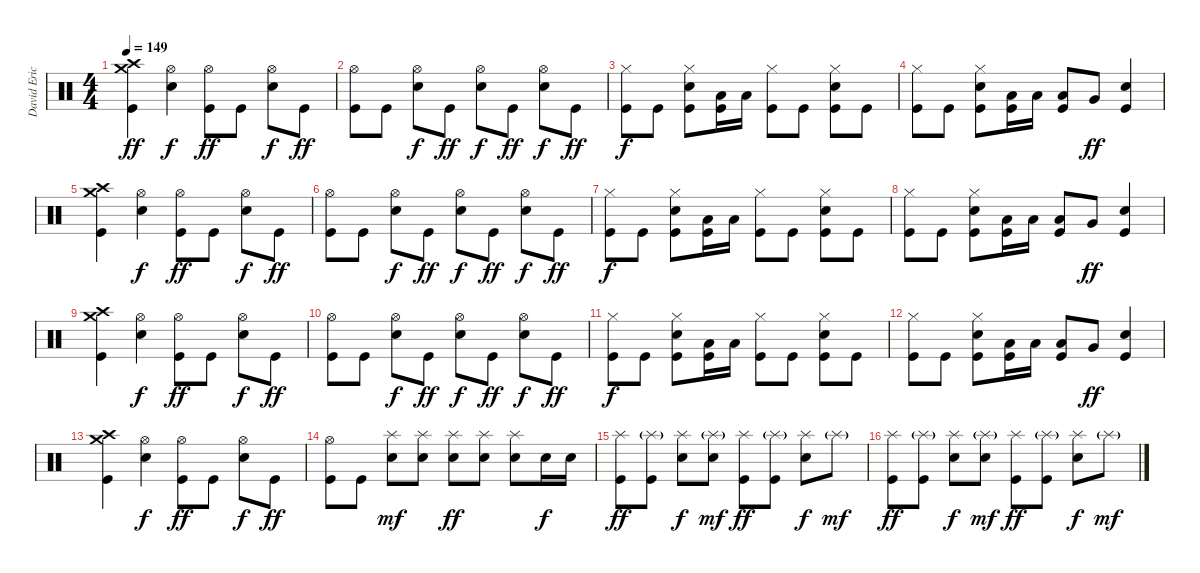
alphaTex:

\track ("David Eric Grohl" "David Eric") {instrument percussion}
\staff {score}
\articulation defaults
\ts (4 4)
\tempo 149
\clef neutral
\ks c
("Crash medium (hit)" "Crash high (hit)" "Kick (hit)").4{dy ff} ("Hi-Hat (open)" "Snare (hit) 2").4{dy f} ("Hi-Hat (open)" "Kick (hit)").8{dy ff} "Kick (hit)".8 ("Hi-Hat (open)" "Snare (hit) 2").8{dy f} "Kick (hit)".8{dy ff} |
("Hi-Hat (open)" "Kick (hit)").8 "Kick (hit)".8 ("Hi-Hat (open)" "Snare (hit) 2").8{dy f} "Kick (hit)".8{dy ff} ("Hi-Hat (open)" "Snare (hit) 2").8{dy f} "Kick (hit)".8{dy ff} ("Hi-Hat (open)" "Snare (hit) 2").8{dy f} "Kick (hit)".8{dy ff} |
("Hi-Hat (closed)" "Kick (hit)").8{dy f} "Kick (hit)".8 ("Snare (hit) 2" "Hi-Hat (closed)" "Kick (hit)").8 ("Low Tom (hit)" "Kick (hit)").16 "Low Tom (hit)".16 ("Hi-Hat (closed)" "Kick (hit)").8 "Kick (hit)".8 ("Snare (hit) 2" "Hi-Hat (closed)" "Kick (hit)").8 "Kick (hit)".8 |
("Hi-Hat (closed)" "Kick (hit)").8 "Kick (hit)".8 ("Snare (hit) 2" "Hi-Hat (closed)" "Kick (hit)").8 ("Low Tom (hit)" "Kick (hit)").16 "Low Tom (hit)".16 ("Low Tom (hit)" "Kick (hit)").8 "Very Low Tom (hit)".8{dy ff} ("Snare (hit) 2" "Kick (hit)").4 |
("Crash medium (hit)" "Crash high (hit)" "Kick (hit)").4 ("Hi-Hat (open)" "Snare (hit) 2").4{dy f} ("Hi-Hat (open)" "Kick (hit)").8{dy ff} "Kick (hit)".8 ("Hi-Hat (open)" "Snare (hit) 2").8{dy f} "Kick (hit)".8{dy ff} |
("Hi-Hat (open)" "Kick (hit)").8 "Kick (hit)".8 ("Hi-Hat (open)" "Snare (hit) 2").8{dy f} "Kick (hit)".8{dy ff} ("Hi-Hat (open)" "Snare (hit) 2").8{dy f} "Kick (hit)".8{dy ff} ("Hi-Hat (open)" "Snare (hit) 2").8{dy f} "Kick (hit)".8{dy ff} |
("Hi-Hat (closed)" "Kick (hit)").8{dy f} "Kick (hit)".8 ("Snare (hit) 2" "Hi-Hat (closed)" "Kick (hit)").8 ("Low Tom (hit)" "Kick (hit)").16 "Low Tom (hit)".16 ("Hi-Hat (closed)" "Kick (hit)").8 "Kick (hit)".8 ("Snare (hit) 2" "Hi-Hat (closed)" "Kick (hit)").8 "Kick (hit)".8 |
("Hi-Hat (closed)" "Kick (hit)").8 "Kick (hit)".8 ("Snare (hit) 2" "Hi-Hat (closed)" "Kick (hit)").8 ("Low Tom (hit)" "Kick (hit)").16 "Low Tom (hit)".16 ("Low Tom (hit)" "Kick (hit)").8 "Very Low Tom (hit)".8{dy ff} ("Snare (hit) 2" "Kick (hit)").4 |
("Crash medium (hit)" "Crash high (hit)" "Kick (hit)").4 ("Hi-Hat (open)" "Snare (hit) 2").4{dy f} ("Hi-Hat (open)" "Kick (hit)").8{dy ff} "Kick (hit)".8 ("Hi-Hat (open)" "Snare (hit) 2").8{dy f} "Kick (hit)".8{dy ff} |
("Hi-Hat (open)" "Kick (hit)").8 "Kick (hit)".8 ("Hi-Hat (open)" "Snare (hit) 2").8{dy f} "Kick (hit)".8{dy ff} ("Hi-Hat (open)" "Snare (hit) 2").8{dy f} "Kick (hit)".8{dy ff} ("Hi-Hat (open)" "Snare (hit) 2").8{dy f} "Kick (hit)".8{dy ff} |
("Hi-Hat (closed)" "Kick (hit)").8{dy f} "Kick (hit)".8 ("Snare (hit) 2" "Hi-Hat (closed)" "Kick (hit)").8 ("Low Tom (hit)" "Kick (hit)").16 "Low Tom (hit)".16 ("Hi-Hat (closed)" "Kick (hit)").8 "Kick (hit)".8 ("Snare (hit) 2" "Hi-Hat (closed)" "Kick (hit)").8 "Kick (hit)".8 |
("Hi-Hat (closed)" "Kick (hit)").8 "Kick (hit)".8 ("Snare (hit) 2" "Hi-Hat (closed)" "Kick (hit)").8 ("Low Tom (hit)" "Kick (hit)").16 "Low Tom (hit)".16 ("Low Tom (hit)" "Kick (hit)").8 "Very Low Tom (hit)".8{dy ff} ("Snare (hit) 2" "Kick (hit)").4 |
("Crash medium (hit)" "Crash high (hit)" "Kick (hit)").4 ("Hi-Hat (open)" "Snare (hit) 2").4{dy f} ("Hi-Hat (open)" "Kick (hit)").8{dy ff} "Kick (hit)".8 ("Hi-Hat (open)" "Snare (hit) 2").8{dy f} "Kick (hit)".8{dy ff} |
("Hi-Hat (open)" "Kick (hit)").8 "Kick (hit)".8 ("Splash (hit)" "Snare (hit) 2").8{dy mf} ("Splash (hit)" "Snare (hit) 2").8 ("Splash (hit)" "Snare (hit) 2").8{dy ff} ("Splash (hit)" "Snare (hit) 2").8 ("Splash (hit)" "Snare (hit) 2").8 "Snare (hit) 2".16{dy f} "Snare (hit) 2".16 |
("Splash (hit)" "Kick (hit)").8{dy ff} ("Splash (hit)"{g} "Kick (hit)").8 ("Splash (hit)" "Snare (hit) 2").8{dy f} ("Splash (hit)"{g} "Snare (hit) 2").8{dy mf} ("Splash (hit)" "Kick (hit)").8{dy ff} ("Splash (hit)"{g} "Kick (hit)").8 ("Splash (hit)" "Snare (hit) 2").8{dy f} "Splash (hit)"{g}.8{dy mf} |
("Splash (hit)" "Kick (hit)").8{dy ff} ("Splash (hit)"{g} "Kick (hit)").8 ("Splash (hit)" "Snare (hit) 2").8{dy f} ("Splash (hit)"{g} "Snare (hit) 2").8{dy mf} ("Splash (hit)" "Kick (hit)").8{dy ff} ("Splash (hit)"{g} "Kick (hit)").8 ("Splash (hit)" "Snare (hit) 2").8{dy f} "Splash (hit)"{g}.8{dy mf}
